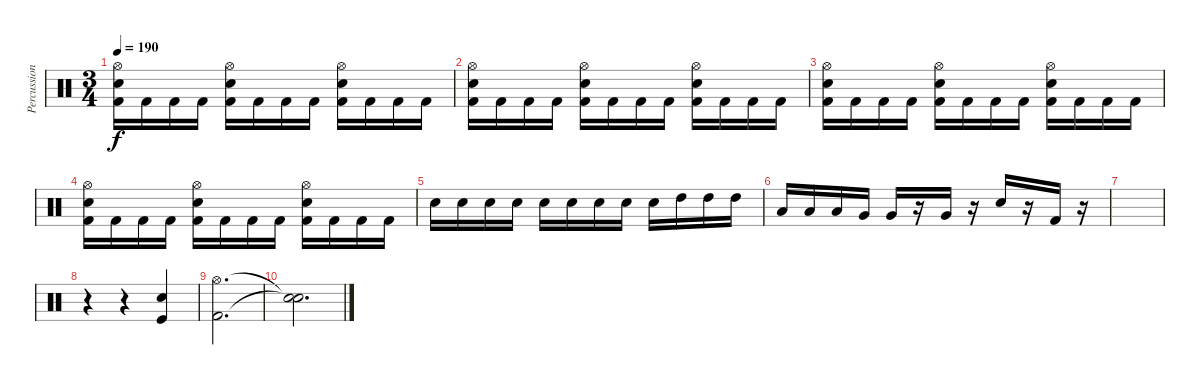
\track ("Percussion" "Percussion") {instrument percussion}
\staff {score}
\articulation defaults
\ts (3 4)
\tempo 190
\clef neutral
\ks c
("Kick (hit) 2" "Snare (hit) 2" "Hi-Hat (open)").16{dy f} "Kick (hit) 2".16 "Kick (hit) 2".16 "Kick (hit) 2".16 ("Kick (hit) 2" "Snare (hit) 2" "Hi-Hat (open)").16 "Kick (hit) 2".16 "Kick (hit) 2".16 "Kick (hit) 2".16 ("Kick (hit) 2" "Snare (hit) 2" "Hi-Hat (open)").16 "Kick (hit) 2".16 "Kick (hit) 2".16 "Kick (hit) 2".16 |
("Kick (hit) 2" "Snare (hit) 2" "Hi-Hat (open)").16 "Kick (hit) 2".16 "Kick (hit) 2".16 "Kick (hit) 2".16 ("Kick (hit) 2" "Snare (hit) 2" "Hi-Hat (open)").16 "Kick (hit) 2".16 "Kick (hit) 2".16 "Kick (hit) 2".16 ("Kick (hit) 2" "Snare (hit) 2" "Hi-Hat (open)").16 "Kick (hit) 2".16 "Kick (hit) 2".16 "Kick (hit) 2".16 |
("Kick (hit) 2" "Snare (hit) 2" "Hi-Hat (open)").16 "Kick (hit) 2".16 "Kick (hit) 2".16 "Kick (hit) 2".16 ("Kick (hit) 2" "Snare (hit) 2" "Hi-Hat (open)").16 "Kick (hit) 2".16 "Kick (hit) 2".16 "Kick (hit) 2".16 ("Kick (hit) 2" "Snare (hit) 2" "Hi-Hat (open)").16 "Kick (hit) 2".16 "Kick (hit) 2".16 "Kick (hit) 2".16 |
("Kick (hit) 2" "Snare (hit) 2" "Hi-Hat (open)").16 "Kick (hit) 2".16 "Kick (hit) 2".16 "Kick (hit) 2".16 ("Kick (hit) 2" "Snare (hit) 2" "Hi-Hat (open)").16 "Kick (hit) 2".16 "Kick (hit) 2".16 "Kick (hit) 2".16 ("Kick (hit) 2" "Snare (hit) 2" "Hi-Hat (open)").16 "Kick (hit) 2".16 "Kick (hit) 2".16 "Kick (hit) 2".16 |
"Snare (hit) 2".16 "Snare (hit) 2".16 "Snare (hit) 2".16 "Snare (hit) 2".16 "Snare (hit) 2".16 "Snare (hit) 2".16 "Snare (hit) 2".16 "Snare (hit) 2".16 "Snare (hit) 2".16 "High Tom (hit)".16 "High Tom (hit)".16 "High Tom (hit)".16 |
"Low Tom (hit)".16 "Low Tom (hit)".16 "Low Tom (hit)".16 "Very Low Tom (hit)".16 "Very Low Tom (hit)".16 r.16 "Very Low Tom (hit)".16 r.16 "Snare (hit) 2".16 r.16 "Kick (hit) 2".16 r.16 |
|
r.4 r.4 ("Kick (hit)" "Snare (hit) 2").4 |
("Kick (hit) 2" "Hi-Hat (open)").2{d} |
("Snare (hit)"{t} "Snare (hit)"{t}).2{d}
